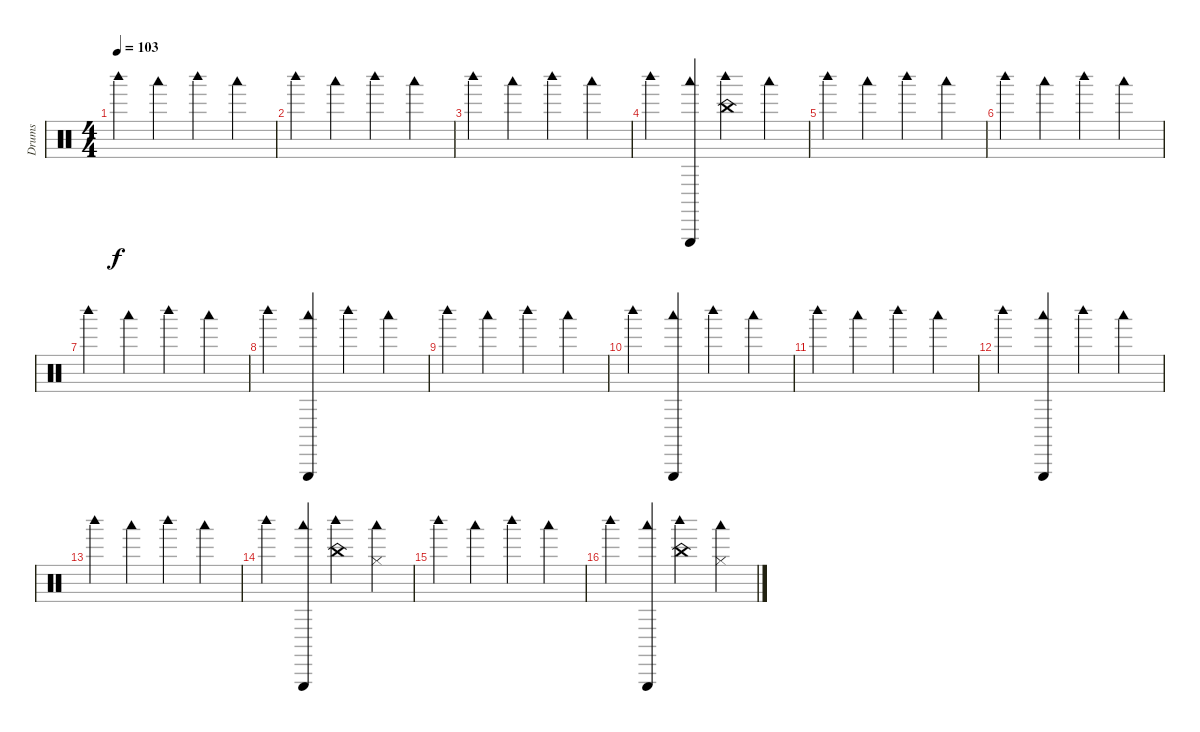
\track ("Drums" "Drums") {instrument percussion}
\staff {score}
\articulation defaults
\ts (4 4)
\tempo 103
\clef neutral
\ks c "Woodblock high (hit)".4{dy f} "Woodblock low (hit)".4 "Woodblock high (hit)".4 "Woodblock low (hit)".4
|
"Woodblock high (hit)".4 "Woodblock low (hit)".4 "Woodblock high (hit)".4 "Woodblock low (hit)".4 |
"Woodblock high (hit)".4 "Woodblock low (hit)".4 "Woodblock high (hit)".4 "Woodblock low (hit)".4 |
"Woodblock high (hit)".4 ("Woodblock low (hit)" "Triangle (hit)").4 ("Woodblock high (hit)" "China (hit)").4 "Woodblock low (hit)".4 |
"Woodblock high (hit)".4 "Woodblock low (hit)".4 "Woodblock high (hit)".4 "Woodblock low (hit)".4 |
"Woodblock high (hit)".4 "Woodblock low (hit)".4 "Woodblock high (hit)".4 "Woodblock low (hit)".4 |
"Woodblock high (hit)".4 "Woodblock low (hit)".4 "Woodblock high (hit)".4 "Woodblock low (hit)".4 |
"Woodblock high (hit)".4 ("Woodblock low (hit)" "Triangle (hit)").4 "Woodblock high (hit)".4 "Woodblock low (hit)".4 |
"Woodblock high (hit)".4 "Woodblock low (hit)".4 "Woodblock high (hit)".4 "Woodblock low (hit)".4 |
"Woodblock high (hit)".4 ("Woodblock low (hit)" "Triangle (hit)").4 "Woodblock high (hit)".4 "Woodblock low (hit)".4 |
"Woodblock high (hit)".4 "Woodblock low (hit)".4 "Woodblock high (hit)".4 "Woodblock low (hit)".4 |
"Woodblock high (hit)".4 ("Woodblock low (hit)" "Triangle (hit)").4 "Woodblock high (hit)".4 "Woodblock low (hit)".4 |
"Woodblock high (hit)".4 "Woodblock low (hit)".4 "Woodblock high (hit)".4 "Woodblock low (hit)".4 |
"Woodblock high (hit)".4 ("Woodblock low (hit)" "Triangle (hit)").4 ("Woodblock high (hit)" "China (hit)").4 ("Woodblock low (hit)" "Hi-Hat (closed)").4 |
"Woodblock high (hit)".4 "Woodblock low (hit)".4 "Woodblock high (hit)".4 "Woodblock low (hit)".4 |
"Woodblock high (hit)".4 ("Woodblock low (hit)" "Triangle (hit)").4 ("Woodblock high (hit)" "China (hit)").4 ("Woodblock low (hit)" "Hi-Hat (closed)").4
